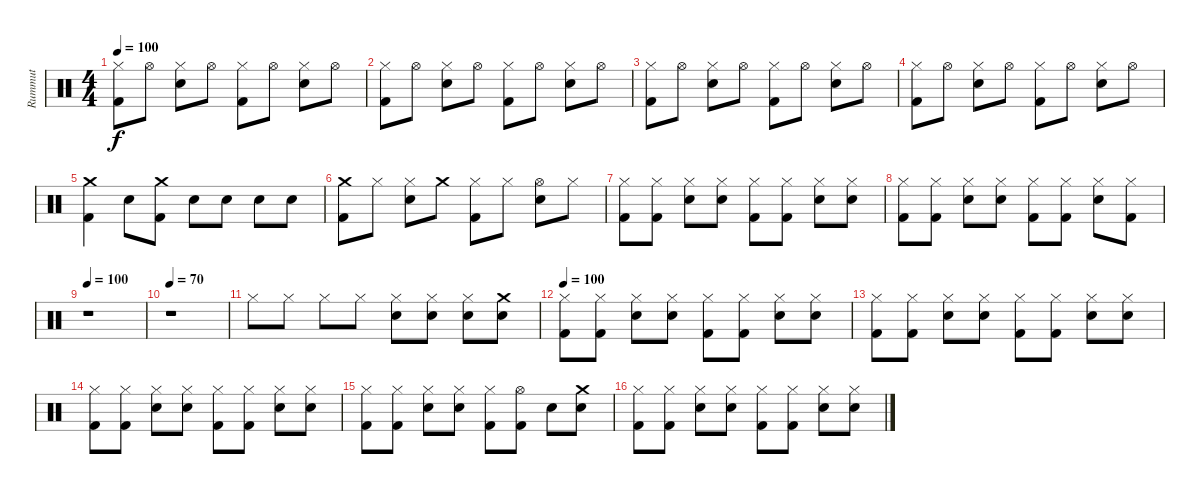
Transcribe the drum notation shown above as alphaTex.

\track ("Rummut" "Rummut") {instrument percussion}
\staff {score}
\articulation defaults
\ts (4 4)
\tempo 100
\clef neutral
\ks c
("Hi-Hat (closed)" "Kick (hit) 2").8{dy f} "Hi-Hat (open)".8 ("Hi-Hat (closed)" "Snare (hit) 2").8 "Hi-Hat (open)".8 ("Hi-Hat (closed)" "Kick (hit) 2").8 "Hi-Hat (open)".8 ("Hi-Hat (closed)" "Snare (hit) 2").8 "Hi-Hat (open)".8 |
("Hi-Hat (closed)" "Kick (hit) 2").8 "Hi-Hat (open)".8 ("Hi-Hat (closed)" "Snare (hit) 2").8 "Hi-Hat (open)".8 ("Hi-Hat (closed)" "Kick (hit) 2").8 "Hi-Hat (open)".8 ("Hi-Hat (closed)" "Snare (hit) 2").8 "Hi-Hat (open)".8 |
("Hi-Hat (closed)" "Kick (hit) 2").8 "Hi-Hat (open)".8 ("Hi-Hat (closed)" "Snare (hit) 2").8 "Hi-Hat (open)".8 ("Hi-Hat (closed)" "Kick (hit) 2").8 "Hi-Hat (open)".8 ("Hi-Hat (closed)" "Snare (hit) 2").8 "Hi-Hat (open)".8 |
("Hi-Hat (closed)" "Kick (hit) 2").8 "Hi-Hat (open)".8 ("Hi-Hat (closed)" "Snare (hit) 2").8 "Hi-Hat (open)".8 ("Hi-Hat (closed)" "Kick (hit) 2").8 "Hi-Hat (open)".8 ("Hi-Hat (closed)" "Snare (hit) 2").8 "Hi-Hat (open)".8 |
("Crash medium (hit)" "Kick (hit) 2").4 "Snare (hit) 2".8 ("Crash medium (hit)" "Kick (hit) 2").8 "Snare (hit) 2".8 "Snare (hit) 2".8 "Snare (hit) 2".8 "Snare (hit) 2".8 |
("Crash medium (hit)" "Kick (hit) 2").8 "Hi-Hat (closed)".8 ("Hi-Hat (closed)" "Snare (hit) 2").8 "Crash medium (hit)".8 ("Hi-Hat (closed)" "Kick (hit) 2").8 "Hi-Hat (closed)".8 ("Hi-Hat (open)" "Snare (hit) 2").8 "Hi-Hat (closed)".8 |
("Hi-Hat (closed)" "Kick (hit) 2").8 ("Hi-Hat (closed)" "Kick (hit) 2").8 ("Hi-Hat (closed)" "Snare (hit) 2").8 ("Hi-Hat (closed)" "Snare (hit) 2").8 ("Hi-Hat (closed)" "Kick (hit) 2").8 ("Hi-Hat (closed)" "Kick (hit) 2").8 ("Hi-Hat (closed)" "Snare (hit) 2").8 ("Hi-Hat (closed)" "Snare (hit) 2").8 |
("Hi-Hat (closed)" "Kick (hit) 2").8 ("Hi-Hat (closed)" "Kick (hit) 2").8 ("Hi-Hat (closed)" "Snare (hit) 2").8 ("Hi-Hat (closed)" "Snare (hit) 2").8 ("Hi-Hat (closed)" "Kick (hit) 2").8 ("Hi-Hat (closed)" "Kick (hit) 2").8 ("Hi-Hat (closed)" "Snare (hit) 2").8 ("Hi-Hat (closed)" "Kick (hit) 2").8 |
\tempo 100
r.1 |
\tempo 70
r.1 |
"Hi-Hat (closed)".8 "Hi-Hat (closed)".8 "Hi-Hat (closed)".8 "Hi-Hat (closed)".8 ("Hi-Hat (closed)" "Snare (hit) 2").8 ("Hi-Hat (closed)" "Snare (hit) 2").8 ("Hi-Hat (closed)" "Snare (hit) 2").8 ("Crash medium (hit)" "Snare (hit) 2").8 |
\tempo 100
("Hi-Hat (closed)" "Kick (hit) 2").8 ("Hi-Hat (closed)" "Kick (hit) 2").8 ("Hi-Hat (closed)" "Snare (hit) 2").8 ("Hi-Hat (closed)" "Snare (hit) 2").8 ("Hi-Hat (closed)" "Kick (hit) 2").8 ("Hi-Hat (closed)" "Kick (hit) 2").8 ("Hi-Hat (closed)" "Snare (hit) 2").8 ("Hi-Hat (closed)" "Snare (hit) 2").8 |
("Hi-Hat (closed)" "Kick (hit) 2").8 ("Hi-Hat (closed)" "Kick (hit) 2").8 ("Hi-Hat (closed)" "Snare (hit) 2").8 ("Hi-Hat (closed)" "Snare (hit) 2").8 ("Hi-Hat (closed)" "Kick (hit) 2").8 ("Hi-Hat (closed)" "Kick (hit) 2").8 ("Hi-Hat (closed)" "Snare (hit) 2").8 ("Hi-Hat (closed)" "Snare (hit) 2").8 |
("Hi-Hat (closed)" "Kick (hit) 2").8 ("Hi-Hat (closed)" "Kick (hit) 2").8 ("Hi-Hat (closed)" "Snare (hit) 2").8 ("Hi-Hat (closed)" "Snare (hit) 2").8 ("Hi-Hat (closed)" "Kick (hit) 2").8 ("Hi-Hat (closed)" "Kick (hit) 2").8 ("Hi-Hat (closed)" "Snare (hit) 2").8 ("Hi-Hat (closed)" "Snare (hit) 2").8 |
("Hi-Hat (closed)" "Kick (hit) 2").8 ("Hi-Hat (closed)" "Kick (hit) 2").8 ("Hi-Hat (closed)" "Snare (hit) 2").8 ("Hi-Hat (closed)" "Snare (hit) 2").8 ("Hi-Hat (closed)" "Kick (hit) 2").8 ("Hi-Hat (open)" "Kick (hit) 2").8 "Snare (hit) 2".8 ("Crash medium (hit)" "Snare (hit) 2").8 |
("Hi-Hat (closed)" "Kick (hit) 2").8 ("Hi-Hat (closed)" "Kick (hit) 2").8 ("Hi-Hat (closed)" "Snare (hit) 2").8 ("Hi-Hat (closed)" "Snare (hit) 2").8 ("Hi-Hat (closed)" "Kick (hit) 2").8 ("Hi-Hat (closed)" "Kick (hit) 2").8 ("Hi-Hat (closed)" "Snare (hit) 2").8 ("Hi-Hat (closed)" "Snare (hit) 2").8
